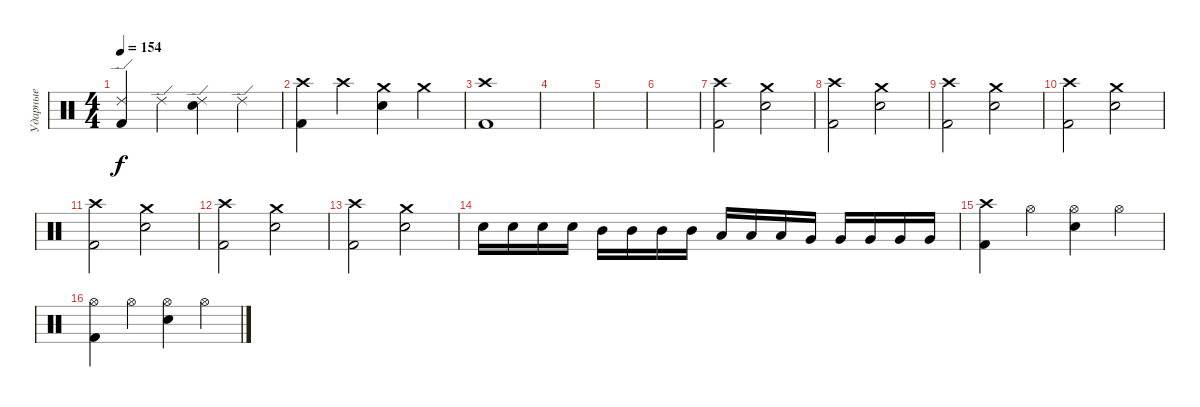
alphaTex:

\track ("Ударные" "Ударные") {instrument percussion}
\staff {score}
\articulation defaults
\ts (4 4)
\tempo 154
\clef neutral
\ks c
("Ride (edge) 2" "Kick (hit) 2").4{dy f} "Ride (edge) 2".4 ("Ride (edge) 2" "Snare (hit) 2").4 "Ride (edge) 2".4 |
("Crash high (hit)" "Kick (hit) 2").4 "Crash high (hit)".4 ("Crash medium (hit)" "Snare (hit) 2").4 "Crash medium (hit)".4 |
("Crash high (hit)" "Kick (hit) 2").1 |
|
|
|
("Crash high (hit)" "Kick (hit) 2").2 ("Crash medium (hit)" "Snare (hit) 2").2 |
("Crash high (hit)" "Kick (hit) 2").2 ("Crash medium (hit)" "Snare (hit) 2").2 |
("Crash high (hit)" "Kick (hit) 2").2 ("Crash medium (hit)" "Snare (hit) 2").2 |
("Crash high (hit)" "Kick (hit) 2").2 ("Crash medium (hit)" "Snare (hit) 2").2 |
("Crash high (hit)" "Kick (hit) 2").2 ("Crash medium (hit)" "Snare (hit) 2").2 |
("Crash high (hit)" "Kick (hit) 2").2 ("Crash medium (hit)" "Snare (hit) 2").2 |
("Crash high (hit)" "Kick (hit) 2").2 ("Crash medium (hit)" "Snare (hit) 2").2 |
"Snare (hit) 2".16 "Snare (hit) 2".16 "Snare (hit) 2".16 "Snare (hit) 2".16 "Mid Tom (hit)".16 "Mid Tom (hit)".16 "Mid Tom (hit)".16 "Mid Tom (hit)".16 "Low Tom (hit)".16 "Low Tom (hit)".16 "Low Tom (hit)".16 "Very Low Tom (hit)".16 "Very Low Tom (hit)".16 "Very Low Tom (hit)".16 "Very Low Tom (hit)".16 "Very Low Tom (hit)".16 |
("Crash high (hit)" "Kick (hit) 2").4 "Hi-Hat (open)".4 ("Hi-Hat (open)" "Snare (hit) 2").4 "Hi-Hat (open)".4 |
("Hi-Hat (open)" "Kick (hit) 2").4 "Hi-Hat (open)".4 ("Hi-Hat (open)" "Snare (hit) 2").4 "Hi-Hat (open)".4
